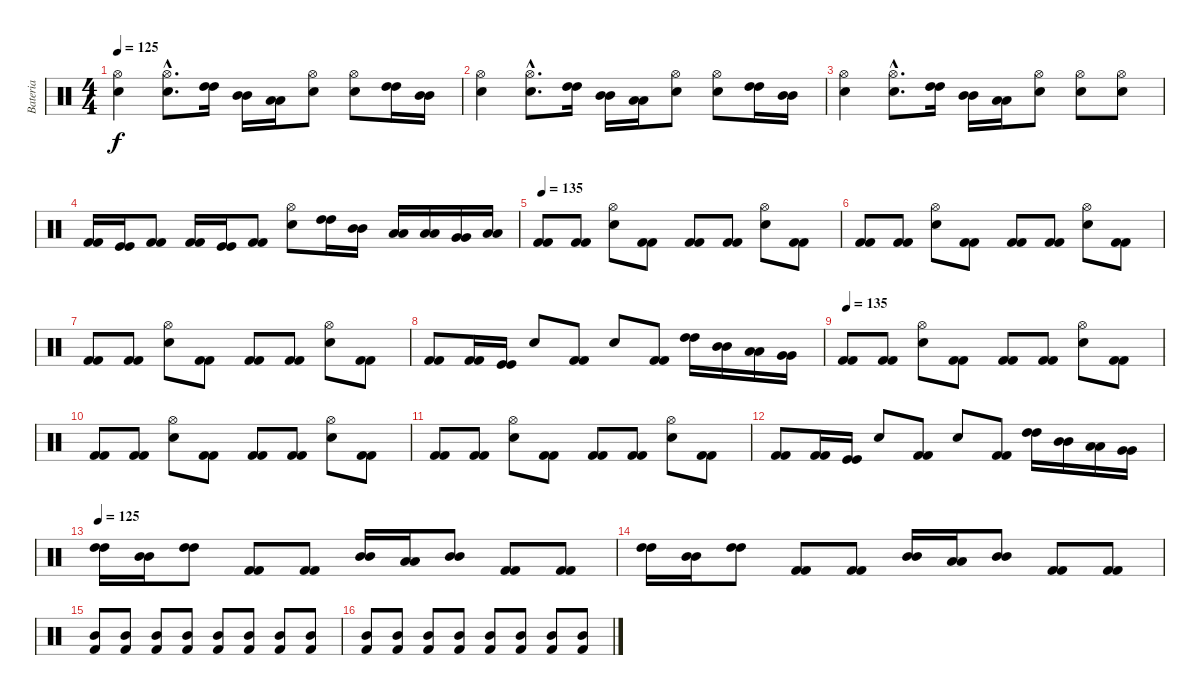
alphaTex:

\track ("Bateria" "Bateria") {instrument percussion}
\staff {score}
\articulation defaults
\ts (4 4)
\tempo 125
\clef neutral
\ks c
("Hi-Hat (open)" "Electric Snare (hit)").4{dy f} ("Hi-Hat (open)"{hac} "Electric Snare (hit)"{hac}).8{d} ("High Tom (hit)" "High Tom (hit)").16 ("Mid Tom (hit)" "Mid Tom (hit)").16 ("Low Tom (hit)" "Low Tom (hit)").16 ("Hi-Hat (open)" "Electric Snare (hit)").8 ("Hi-Hat (open)" "Electric Snare (hit)").8 ("High Tom (hit)" "High Tom (hit)").16 ("Mid Tom (hit)" "Mid Tom (hit)").16 |
("Hi-Hat (open)" "Electric Snare (hit)").4 ("Hi-Hat (open)"{hac} "Electric Snare (hit)"{hac}).8{d} ("High Tom (hit)" "High Tom (hit)").16 ("Mid Tom (hit)" "Mid Tom (hit)").16 ("Low Tom (hit)" "Low Tom (hit)").16 ("Hi-Hat (open)" "Electric Snare (hit)").8 ("Hi-Hat (open)" "Electric Snare (hit)").8 ("High Tom (hit)" "High Tom (hit)").16 ("Mid Tom (hit)" "Mid Tom (hit)").16 |
("Hi-Hat (open)" "Electric Snare (hit)").4 ("Hi-Hat (open)"{hac} "Electric Snare (hit)"{hac}).8{d} ("High Tom (hit)" "High Tom (hit)").16 ("Mid Tom (hit)" "Mid Tom (hit)").16 ("Low Tom (hit)" "Low Tom (hit)").16 ("Hi-Hat (open)" "Electric Snare (hit)").8 ("Hi-Hat (open)" "Electric Snare (hit)").8 ("Hi-Hat (open)" "Electric Snare (hit)").8 |
("Kick (hit) 2" "Kick (hit) 2").16 ("Kick (hit)" "Kick (hit)").16 ("Kick (hit) 2" "Kick (hit) 2").8 ("Kick (hit) 2" "Kick (hit) 2").16 ("Kick (hit)" "Kick (hit)").16 ("Kick (hit) 2" "Kick (hit) 2").8 ("Hi-Hat (open)" "Electric Snare (hit)").8 ("High Tom (hit)" "High Tom (hit)").16 ("Mid Tom (hit)" "Mid Tom (hit)").16 ("Low Tom (hit)" "Low Tom (hit)").16 ("Low Tom (hit)" "Low Tom (hit)").16 ("Very Low Tom (hit)" "Very Low Tom (hit)").16 ("Low Floor Tom (hit)" "Low Floor Tom (hit)").16 |
\tempo 135
("Kick (hit) 2" "Kick (hit) 2").8 ("Kick (hit) 2" "Kick (hit) 2").8 ("Hi-Hat (open)" "Electric Snare (hit)").8 ("Kick (hit) 2" "Kick (hit) 2").8 ("Kick (hit) 2" "Kick (hit) 2").8 ("Kick (hit) 2" "Kick (hit) 2").8 ("Hi-Hat (open)" "Electric Snare (hit)").8 ("Kick (hit) 2" "Kick (hit) 2").8 |
("Kick (hit) 2" "Kick (hit) 2").8 ("Kick (hit) 2" "Kick (hit) 2").8 ("Hi-Hat (open)" "Electric Snare (hit)").8 ("Kick (hit) 2" "Kick (hit) 2").8 ("Kick (hit) 2" "Kick (hit) 2").8 ("Kick (hit) 2" "Kick (hit) 2").8 ("Hi-Hat (open)" "Electric Snare (hit)").8 ("Kick (hit) 2" "Kick (hit) 2").8 |
("Kick (hit) 2" "Kick (hit) 2").8 ("Kick (hit) 2" "Kick (hit) 2").8 ("Hi-Hat (open)" "Electric Snare (hit)").8 ("Kick (hit) 2" "Kick (hit) 2").8 ("Kick (hit) 2" "Kick (hit) 2").8 ("Kick (hit) 2" "Kick (hit) 2").8 ("Hi-Hat (open)" "Electric Snare (hit)").8 ("Kick (hit) 2" "Kick (hit) 2").8 |
("Kick (hit) 2" "Kick (hit) 2").8 ("Kick (hit) 2" "Kick (hit) 2").16 ("Kick (hit)" "Kick (hit)").16 "Electric Snare (hit)".8 ("Kick (hit) 2" "Kick (hit) 2").8 "Electric Snare (hit)".8 ("Kick (hit) 2" "Kick (hit) 2").8 ("High Tom (hit)" "High Tom (hit)").16 ("Mid Tom (hit)" "Mid Tom (hit)").16 ("Low Tom (hit)" "Low Tom (hit)").16 ("Very Low Tom (hit)" "Very Low Tom (hit)").16 |
\tempo 135
("Kick (hit) 2" "Kick (hit) 2").8 ("Kick (hit) 2" "Kick (hit) 2").8 ("Hi-Hat (open)" "Electric Snare (hit)").8 ("Kick (hit) 2" "Kick (hit) 2").8 ("Kick (hit) 2" "Kick (hit) 2").8 ("Kick (hit) 2" "Kick (hit) 2").8 ("Hi-Hat (open)" "Electric Snare (hit)").8 ("Kick (hit) 2" "Kick (hit) 2").8 |
("Kick (hit) 2" "Kick (hit) 2").8 ("Kick (hit) 2" "Kick (hit) 2").8 ("Hi-Hat (open)" "Electric Snare (hit)").8 ("Kick (hit) 2" "Kick (hit) 2").8 ("Kick (hit) 2" "Kick (hit) 2").8 ("Kick (hit) 2" "Kick (hit) 2").8 ("Hi-Hat (open)" "Electric Snare (hit)").8 ("Kick (hit) 2" "Kick (hit) 2").8 |
("Kick (hit) 2" "Kick (hit) 2").8 ("Kick (hit) 2" "Kick (hit) 2").8 ("Hi-Hat (open)" "Electric Snare (hit)").8 ("Kick (hit) 2" "Kick (hit) 2").8 ("Kick (hit) 2" "Kick (hit) 2").8 ("Kick (hit) 2" "Kick (hit) 2").8 ("Hi-Hat (open)" "Electric Snare (hit)").8 ("Kick (hit) 2" "Kick (hit) 2").8 |
("Kick (hit) 2" "Kick (hit) 2").8 ("Kick (hit) 2" "Kick (hit) 2").16 ("Kick (hit)" "Kick (hit)").16 "Electric Snare (hit)".8 ("Kick (hit) 2" "Kick (hit) 2").8 "Electric Snare (hit)".8 ("Kick (hit) 2" "Kick (hit) 2").8 ("High Tom (hit)" "High Tom (hit)").16 ("Mid Tom (hit)" "Mid Tom (hit)").16 ("Low Tom (hit)" "Low Tom (hit)").16 ("Very Low Tom (hit)" "Very Low Tom (hit)").16 |
\tempo 125
("High Tom (hit)" "High Tom (hit)").16 ("Mid Tom (hit)" "Mid Tom (hit)").16 ("High Tom (hit)" "High Tom (hit)").8 ("Kick (hit) 2" "Kick (hit) 2").8 ("Kick (hit) 2" "Kick (hit) 2").8 ("Mid Tom (hit)" "Mid Tom (hit)").16 ("Low Tom (hit)" "Low Tom (hit)").16 ("Mid Tom (hit)" "Mid Tom (hit)").8 ("Kick (hit) 2" "Kick (hit) 2").8 ("Kick (hit) 2" "Kick (hit) 2").8 |
("High Tom (hit)" "High Tom (hit)").16 ("Mid Tom (hit)" "Mid Tom (hit)").16 ("High Tom (hit)" "High Tom (hit)").8 ("Kick (hit) 2" "Kick (hit) 2").8 ("Kick (hit) 2" "Kick (hit) 2").8 ("Mid Tom (hit)" "Mid Tom (hit)").16 ("Low Tom (hit)" "Low Tom (hit)").16 ("Mid Tom (hit)" "Mid Tom (hit)").8 ("Kick (hit) 2" "Kick (hit) 2").8 ("Kick (hit) 2" "Kick (hit) 2").8 |
("Mid Tom (hit)" "Kick (hit) 2").8 ("Mid Tom (hit)" "Kick (hit) 2").8 ("Mid Tom (hit)" "Kick (hit) 2").8 ("Mid Tom (hit)" "Kick (hit) 2").8 ("Mid Tom (hit)" "Kick (hit) 2").8 ("Mid Tom (hit)" "Kick (hit) 2").8 ("Mid Tom (hit)" "Kick (hit) 2").8 ("Mid Tom (hit)" "Kick (hit) 2").8 |
("Mid Tom (hit)" "Kick (hit) 2").8 ("Mid Tom (hit)" "Kick (hit) 2").8 ("Mid Tom (hit)" "Kick (hit) 2").8 ("Mid Tom (hit)" "Kick (hit) 2").8 ("Mid Tom (hit)" "Kick (hit) 2").8 ("Mid Tom (hit)" "Kick (hit) 2").8 ("Mid Tom (hit)" "Kick (hit) 2").8 ("Mid Tom (hit)" "Kick (hit) 2").8
